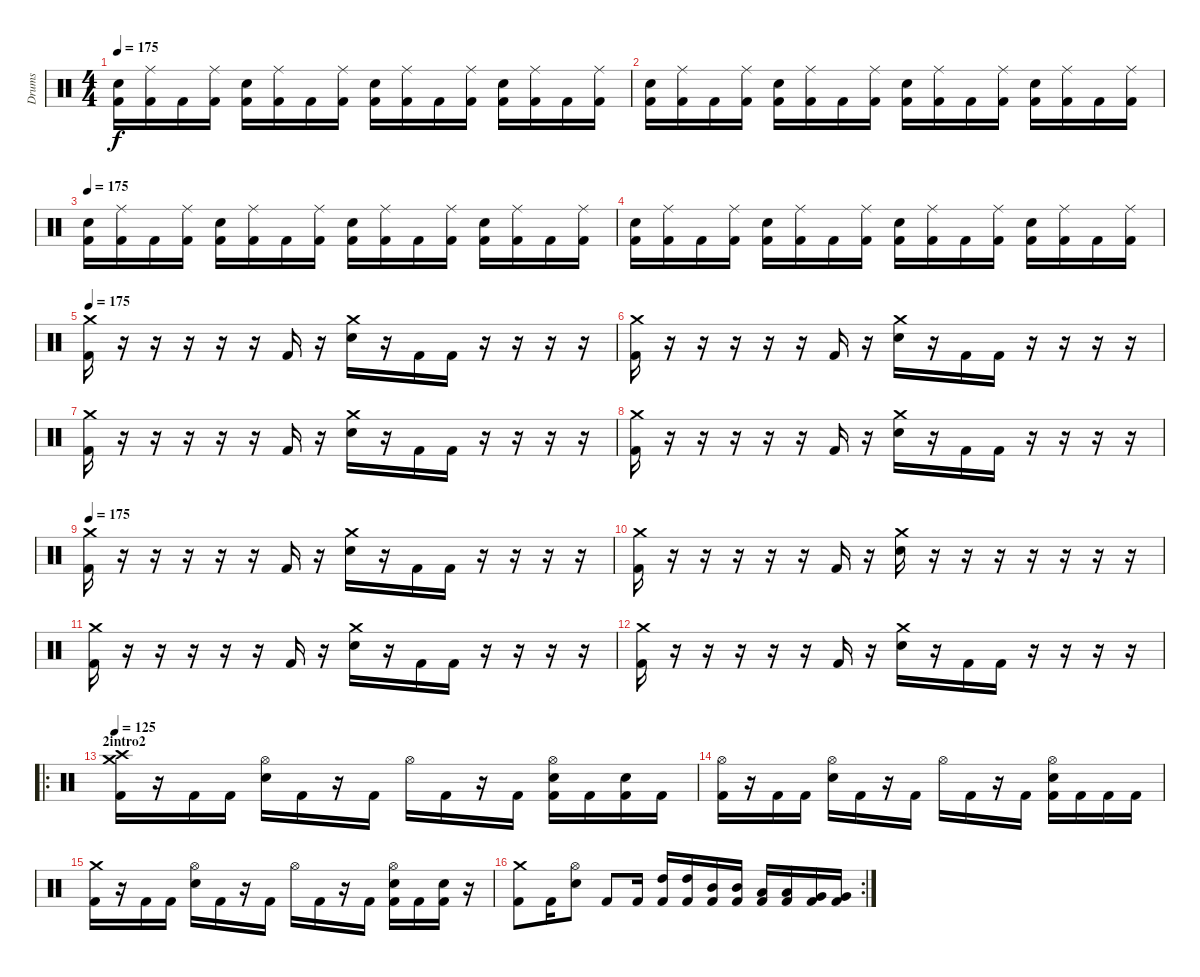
\track ("Drums" "Drums") {instrument percussion}
\staff {score}
\articulation defaults
\ts (4 4)
\tempo 175
\clef neutral
\ks c
("Electric Snare (hit)" "Kick (hit) 2").16{dy f} ("Ride (middle)" "Kick (hit) 2").16 "Kick (hit) 2".16 ("Ride (middle)" "Kick (hit) 2").16 ("Electric Snare (hit)" "Kick (hit) 2").16 ("Ride (middle)" "Kick (hit) 2").16 "Kick (hit) 2".16 ("Ride (middle)" "Kick (hit) 2").16 ("Electric Snare (hit)" "Kick (hit) 2").16 ("Ride (middle)" "Kick (hit) 2").16 "Kick (hit) 2".16 ("Ride (middle)" "Kick (hit) 2").16 ("Electric Snare (hit)" "Kick (hit) 2").16 ("Ride (middle)" "Kick (hit) 2").16 "Kick (hit) 2".16 ("Ride (middle)" "Kick (hit) 2").16 |
("Electric Snare (hit)" "Kick (hit) 2").16 ("Ride (middle)" "Kick (hit) 2").16 "Kick (hit) 2".16 ("Ride (middle)" "Kick (hit) 2").16 ("Electric Snare (hit)" "Kick (hit) 2").16 ("Ride (middle)" "Kick (hit) 2").16 "Kick (hit) 2".16 ("Ride (middle)" "Kick (hit) 2").16 ("Electric Snare (hit)" "Kick (hit) 2").16 ("Ride (middle)" "Kick (hit) 2").16 "Kick (hit) 2".16 ("Ride (middle)" "Kick (hit) 2").16 ("Electric Snare (hit)" "Kick (hit) 2").16 ("Ride (middle)" "Kick (hit) 2").16 "Kick (hit) 2".16 ("Ride (middle)" "Kick (hit) 2").16 |
\tempo 175
("Electric Snare (hit)" "Kick (hit) 2").16 ("Ride (middle)" "Kick (hit) 2").16 "Kick (hit) 2".16 ("Ride (middle)" "Kick (hit) 2").16 ("Electric Snare (hit)" "Kick (hit) 2").16 ("Ride (middle)" "Kick (hit) 2").16 "Kick (hit) 2".16 ("Ride (middle)" "Kick (hit) 2").16 ("Electric Snare (hit)" "Kick (hit) 2").16 ("Ride (middle)" "Kick (hit) 2").16 "Kick (hit) 2".16 ("Ride (middle)" "Kick (hit) 2").16 ("Electric Snare (hit)" "Kick (hit) 2").16 ("Ride (middle)" "Kick (hit) 2").16 "Kick (hit) 2".16 ("Ride (middle)" "Kick (hit) 2").16 |
("Electric Snare (hit)" "Kick (hit) 2").16 ("Ride (middle)" "Kick (hit) 2").16 "Kick (hit) 2".16 ("Ride (middle)" "Kick (hit) 2").16 ("Electric Snare (hit)" "Kick (hit) 2").16 ("Ride (middle)" "Kick (hit) 2").16 "Kick (hit) 2".16 ("Ride (middle)" "Kick (hit) 2").16 ("Electric Snare (hit)" "Kick (hit) 2").16 ("Ride (middle)" "Kick (hit) 2").16 "Kick (hit) 2".16 ("Ride (middle)" "Kick (hit) 2").16 ("Electric Snare (hit)" "Kick (hit) 2").16 ("Ride (middle)" "Kick (hit) 2").16 "Kick (hit) 2".16 ("Ride (middle)" "Kick (hit) 2").16 |
\tempo 175
("Crash medium (hit)" "Kick (hit) 2").16 r.16 r.16 r.16 r.16 r.16 "Kick (hit) 2".16 r.16 ("Crash medium (hit)" "Electric Snare (hit)").16 r.16 "Kick (hit) 2".16 "Kick (hit) 2".16 r.16 r.16 r.16 r.16 |
("Crash medium (hit)" "Kick (hit) 2").16 r.16 r.16 r.16 r.16 r.16 "Kick (hit) 2".16 r.16 ("Crash medium (hit)" "Electric Snare (hit)").16 r.16 "Kick (hit) 2".16 "Kick (hit) 2".16 r.16 r.16 r.16 r.16 |
("Crash medium (hit)" "Kick (hit) 2").16 r.16 r.16 r.16 r.16 r.16 "Kick (hit) 2".16 r.16 ("Crash medium (hit)" "Electric Snare (hit)").16 r.16 "Kick (hit) 2".16 "Kick (hit) 2".16 r.16 r.16 r.16 r.16 |
("Crash medium (hit)" "Kick (hit) 2").16 r.16 r.16 r.16 r.16 r.16 "Kick (hit) 2".16 r.16 ("Crash medium (hit)" "Electric Snare (hit)").16 r.16 "Kick (hit) 2".16 "Kick (hit) 2".16 r.16 r.16 r.16 r.16 |
\tempo 175
("Crash medium (hit)" "Kick (hit) 2").16 r.16 r.16 r.16 r.16 r.16 "Kick (hit) 2".16 r.16 ("Crash medium (hit)" "Electric Snare (hit)").16 r.16 "Kick (hit) 2".16 "Kick (hit) 2".16 r.16 r.16 r.16 r.16 |
("Crash medium (hit)" "Kick (hit) 2").16 r.16 r.16 r.16 r.16 r.16 "Kick (hit) 2".16 r.16 ("Crash medium (hit)" "Electric Snare (hit)").16 r.16 r.16 r.16 r.16 r.16 r.16 r.16 |
("Crash medium (hit)" "Kick (hit) 2").16 r.16 r.16 r.16 r.16 r.16 "Kick (hit) 2".16 r.16 ("Crash medium (hit)" "Electric Snare (hit)").16 r.16 "Kick (hit) 2".16 "Kick (hit) 2".16 r.16 r.16 r.16 r.16 |
("Crash medium (hit)" "Kick (hit) 2").16 r.16 r.16 r.16 r.16 r.16 "Kick (hit) 2".16 r.16 ("Crash medium (hit)" "Electric Snare (hit)").16 r.16 "Kick (hit) 2".16 "Kick (hit) 2".16 r.16 r.16 r.16 r.16 |
\ro
\section ("" "2intro2")
\tempo 125
("Crash medium (hit)" "Crash high (hit)" "Kick (hit) 2").16 r.16 "Kick (hit) 2".16 "Kick (hit) 2".16 ("Hi-Hat (open)" "Electric Snare (hit)").16 "Kick (hit) 2".16 r.16 "Kick (hit) 2".16 "Hi-Hat (open)".16 "Kick (hit) 2".16 r.16 "Kick (hit) 2".16 ("Hi-Hat (open)" "Electric Snare (hit)" "Kick (hit) 2").16 "Kick (hit) 2".16 ("Electric Snare (hit)" "Kick (hit) 2").16 "Kick (hit) 2".16 |
("Hi-Hat (open)" "Kick (hit) 2").16 r.16 "Kick (hit) 2".16 "Kick (hit) 2".16 ("Hi-Hat (open)" "Electric Snare (hit)").16 "Kick (hit) 2".16 r.16 "Kick (hit) 2".16 "Hi-Hat (open)".16 "Kick (hit) 2".16 r.16 "Kick (hit) 2".16 ("Hi-Hat (open)" "Electric Snare (hit)" "Kick (hit) 2").16 "Kick (hit) 2".16 "Kick (hit) 2".16 "Kick (hit) 2".16 |
("Crash medium (hit)" "Kick (hit) 2").16 r.16 "Kick (hit) 2".16 "Kick (hit) 2".16 ("Hi-Hat (open)" "Electric Snare (hit)").16 "Kick (hit) 2".16 r.16 "Kick (hit) 2".16 "Hi-Hat (open)".16 "Kick (hit) 2".16 r.16 "Kick (hit) 2".16 ("Hi-Hat (open)" "Electric Snare (hit)" "Kick (hit) 2").16 "Kick (hit) 2".16 ("Electric Snare (hit)" "Kick (hit) 2").16 r.16 |
\rc 2
("Crash medium (hit)" "Kick (hit) 2").8 "Kick (hit) 2".16 ("Hi-Hat (open)" "Electric Snare (hit)").8 "Kick (hit) 2".8 "Kick (hit) 2".16 ("High Tom (hit)" "Kick (hit) 2").16 ("High Tom (hit)" "Kick (hit) 2").16 ("Mid Tom (hit)" "Kick (hit) 2").16 ("Mid Tom (hit)" "Kick (hit) 2").16 ("Low Tom (hit)" "Kick (hit) 2").16 ("Low Tom (hit)" "Kick (hit) 2").16 ("Very Low Tom (hit)" "Kick (hit) 2").16 ("Very Low Tom (hit)" "Kick (hit) 2").16
